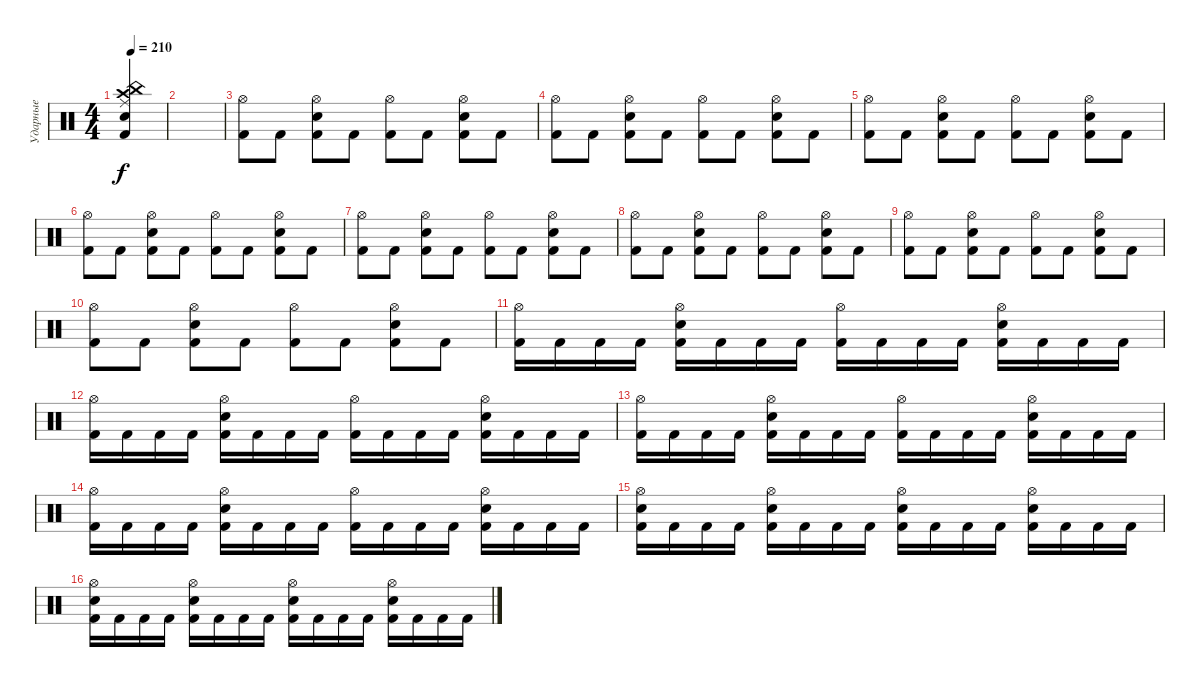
\track ("Ударные" "Ударные") {instrument percussion}
\staff {score}
\articulation defaults
\ts (4 4)
\tempo 210
\clef neutral
\ks c
("Electric Snare (hit)" "Crash high (hit)" "Ride (middle)" "China (hit)" "Kick (hit) 2").4{dy f} |
|
("Kick (hit) 2" "Hi-Hat (open)").8 "Kick (hit) 2".8 ("Kick (hit) 2" "Electric Snare (hit)" "Hi-Hat (open)").8 "Kick (hit) 2".8 ("Kick (hit) 2" "Hi-Hat (open)").8 "Kick (hit) 2".8 ("Kick (hit) 2" "Hi-Hat (open)" "Electric Snare (hit)").8 "Kick (hit) 2".8 |
("Kick (hit) 2" "Hi-Hat (open)").8 "Kick (hit) 2".8 ("Kick (hit) 2" "Electric Snare (hit)" "Hi-Hat (open)").8 "Kick (hit) 2".8 ("Kick (hit) 2" "Hi-Hat (open)").8 "Kick (hit) 2".8 ("Kick (hit) 2" "Hi-Hat (open)" "Electric Snare (hit)").8 "Kick (hit) 2".8 |
("Kick (hit) 2" "Hi-Hat (open)").8 "Kick (hit) 2".8 ("Kick (hit) 2" "Electric Snare (hit)" "Hi-Hat (open)").8 "Kick (hit) 2".8 ("Kick (hit) 2" "Hi-Hat (open)").8 "Kick (hit) 2".8 ("Kick (hit) 2" "Hi-Hat (open)" "Electric Snare (hit)").8 "Kick (hit) 2".8 |
("Kick (hit) 2" "Hi-Hat (open)").8 "Kick (hit) 2".8 ("Kick (hit) 2" "Electric Snare (hit)" "Hi-Hat (open)").8 "Kick (hit) 2".8 ("Kick (hit) 2" "Hi-Hat (open)").8 "Kick (hit) 2".8 ("Kick (hit) 2" "Hi-Hat (open)" "Electric Snare (hit)").8 "Kick (hit) 2".8 |
("Kick (hit) 2" "Hi-Hat (open)").8 "Kick (hit) 2".8 ("Kick (hit) 2" "Electric Snare (hit)" "Hi-Hat (open)").8 "Kick (hit) 2".8 ("Kick (hit) 2" "Hi-Hat (open)").8 "Kick (hit) 2".8 ("Kick (hit) 2" "Hi-Hat (open)" "Electric Snare (hit)").8 "Kick (hit) 2".8 |
("Kick (hit) 2" "Hi-Hat (open)").8 "Kick (hit) 2".8 ("Kick (hit) 2" "Electric Snare (hit)" "Hi-Hat (open)").8 "Kick (hit) 2".8 ("Kick (hit) 2" "Hi-Hat (open)").8 "Kick (hit) 2".8 ("Kick (hit) 2" "Hi-Hat (open)" "Electric Snare (hit)").8 "Kick (hit) 2".8 |
("Kick (hit) 2" "Hi-Hat (open)").8 "Kick (hit) 2".8 ("Kick (hit) 2" "Electric Snare (hit)" "Hi-Hat (open)").8 "Kick (hit) 2".8 ("Kick (hit) 2" "Hi-Hat (open)").8 "Kick (hit) 2".8 ("Kick (hit) 2" "Hi-Hat (open)" "Electric Snare (hit)").8 "Kick (hit) 2".8 |
("Kick (hit) 2" "Hi-Hat (open)").8 "Kick (hit) 2".8 ("Kick (hit) 2" "Electric Snare (hit)" "Hi-Hat (open)").8 "Kick (hit) 2".8 ("Kick (hit) 2" "Hi-Hat (open)").8 "Kick (hit) 2".8 ("Kick (hit) 2" "Hi-Hat (open)" "Electric Snare (hit)").8 "Kick (hit) 2".8 |
("Kick (hit) 2" "Hi-Hat (open)").16 "Kick (hit) 2".16 "Kick (hit) 2".16 "Kick (hit) 2".16 ("Kick (hit) 2" "Electric Snare (hit)" "Hi-Hat (open)").16 "Kick (hit) 2".16 "Kick (hit) 2".16 "Kick (hit) 2".16 ("Kick (hit) 2" "Hi-Hat (open)").16 "Kick (hit) 2".16 "Kick (hit) 2".16 "Kick (hit) 2".16 ("Kick (hit) 2" "Electric Snare (hit)" "Hi-Hat (open)").16 "Kick (hit) 2".16 "Kick (hit) 2".16 "Kick (hit) 2".16 |
("Kick (hit) 2" "Hi-Hat (open)").16 "Kick (hit) 2".16 "Kick (hit) 2".16 "Kick (hit) 2".16 ("Kick (hit) 2" "Electric Snare (hit)" "Hi-Hat (open)").16 "Kick (hit) 2".16 "Kick (hit) 2".16 "Kick (hit) 2".16 ("Kick (hit) 2" "Hi-Hat (open)").16 "Kick (hit) 2".16 "Kick (hit) 2".16 "Kick (hit) 2".16 ("Kick (hit) 2" "Electric Snare (hit)" "Hi-Hat (open)").16 "Kick (hit) 2".16 "Kick (hit) 2".16 "Kick (hit) 2".16 |
("Kick (hit) 2" "Hi-Hat (open)").16 "Kick (hit) 2".16 "Kick (hit) 2".16 "Kick (hit) 2".16 ("Kick (hit) 2" "Electric Snare (hit)" "Hi-Hat (open)").16 "Kick (hit) 2".16 "Kick (hit) 2".16 "Kick (hit) 2".16 ("Kick (hit) 2" "Hi-Hat (open)").16 "Kick (hit) 2".16 "Kick (hit) 2".16 "Kick (hit) 2".16 ("Kick (hit) 2" "Electric Snare (hit)" "Hi-Hat (open)").16 "Kick (hit) 2".16 "Kick (hit) 2".16 "Kick (hit) 2".16 |
("Kick (hit) 2" "Hi-Hat (open)").16 "Kick (hit) 2".16 "Kick (hit) 2".16 "Kick (hit) 2".16 ("Kick (hit) 2" "Electric Snare (hit)" "Hi-Hat (open)").16 "Kick (hit) 2".16 "Kick (hit) 2".16 "Kick (hit) 2".16 ("Kick (hit) 2" "Hi-Hat (open)").16 "Kick (hit) 2".16 "Kick (hit) 2".16 "Kick (hit) 2".16 ("Kick (hit) 2" "Electric Snare (hit)" "Hi-Hat (open)").16 "Kick (hit) 2".16 "Kick (hit) 2".16 "Kick (hit) 2".16 |
("Kick (hit) 2" "Hi-Hat (open)" "Electric Snare (hit)").16 "Kick (hit) 2".16 "Kick (hit) 2".16 "Kick (hit) 2".16 ("Kick (hit) 2" "Electric Snare (hit)" "Hi-Hat (open)").16 "Kick (hit) 2".16 "Kick (hit) 2".16 "Kick (hit) 2".16 ("Kick (hit) 2" "Hi-Hat (open)" "Electric Snare (hit)").16 "Kick (hit) 2".16 "Kick (hit) 2".16 "Kick (hit) 2".16 ("Kick (hit) 2" "Electric Snare (hit)" "Hi-Hat (open)").16 "Kick (hit) 2".16 "Kick (hit) 2".16 "Kick (hit) 2".16 |
("Kick (hit) 2" "Hi-Hat (open)" "Electric Snare (hit)").16 "Kick (hit) 2".16 "Kick (hit) 2".16 "Kick (hit) 2".16 ("Kick (hit) 2" "Electric Snare (hit)" "Hi-Hat (open)").16 "Kick (hit) 2".16 "Kick (hit) 2".16 "Kick (hit) 2".16 ("Kick (hit) 2" "Hi-Hat (open)" "Electric Snare (hit)").16 "Kick (hit) 2".16 "Kick (hit) 2".16 "Kick (hit) 2".16 ("Kick (hit) 2" "Electric Snare (hit)" "Hi-Hat (open)").16 "Kick (hit) 2".16 "Kick (hit) 2".16 "Kick (hit) 2".16
